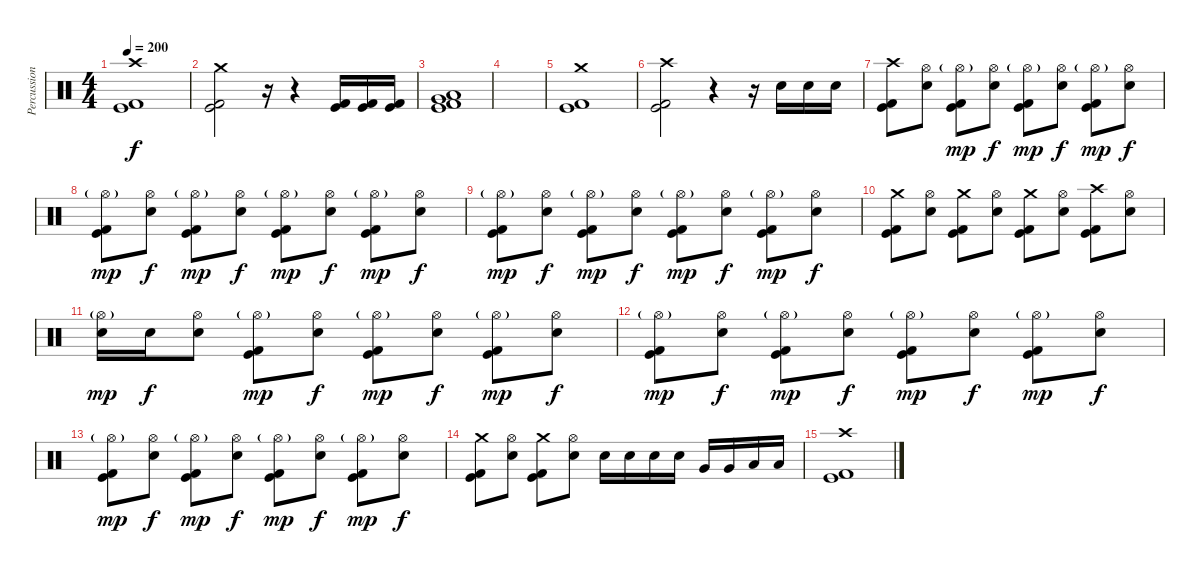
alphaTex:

\track ("Percussions" "Percussion") {instrument percussion}
\staff {score}
\articulation defaults
\ts (4 4)
\tempo 200
\clef neutral
\ks c
("Crash high (hit)" "Kick (hit)" "Kick (hit) 2").1{dy f} |
("Crash medium (hit)" "Kick (hit)" "Kick (hit) 2").2 r.16 r.4 ("Kick (hit)" "Kick (hit) 2").16 ("Kick (hit)" "Kick (hit) 2").16 ("Kick (hit)" "Kick (hit) 2").16 |
("Very Low Tom (hit)" "Low Floor Tom (hit)" "Kick (hit)" "Kick (hit) 2").1 |
|
("Crash medium (hit)" "Kick (hit)" "Kick (hit) 2").1 |
("Crash high (hit)" "Kick (hit)" "Kick (hit) 2").2 r.4 r.16 "Electric Snare (hit)".16 "Electric Snare (hit)".16 "Electric Snare (hit)".16 |
("Crash high (hit)" "Kick (hit)" "Kick (hit) 2").8 ("Hi-Hat (open)" "Electric Snare (hit)").8 ("Hi-Hat (open)"{g} "Kick (hit)" "Kick (hit) 2").8{dy mp} ("Hi-Hat (open)" "Electric Snare (hit)").8{dy f} ("Hi-Hat (open)"{g} "Kick (hit)" "Kick (hit) 2").8{dy mp} ("Hi-Hat (open)" "Electric Snare (hit)").8{dy f} ("Hi-Hat (open)"{g} "Kick (hit)" "Kick (hit) 2").8{dy mp} ("Hi-Hat (open)" "Electric Snare (hit)").8{dy f} |
("Hi-Hat (open)"{g} "Kick (hit)" "Kick (hit) 2").8{dy mp} ("Hi-Hat (open)" "Electric Snare (hit)").8{dy f} ("Hi-Hat (open)"{g} "Kick (hit)" "Kick (hit) 2").8{dy mp} ("Hi-Hat (open)" "Electric Snare (hit)").8{dy f} ("Hi-Hat (open)"{g} "Kick (hit)" "Kick (hit) 2").8{dy mp} ("Hi-Hat (open)" "Electric Snare (hit)").8{dy f} ("Hi-Hat (open)"{g} "Kick (hit)" "Kick (hit) 2").8{dy mp} ("Hi-Hat (open)" "Electric Snare (hit)").8{dy f} |
("Hi-Hat (open)"{g} "Kick (hit)" "Kick (hit) 2").8{dy mp} ("Hi-Hat (open)" "Electric Snare (hit)").8{dy f} ("Hi-Hat (open)"{g} "Kick (hit)" "Kick (hit) 2").8{dy mp} ("Hi-Hat (open)" "Electric Snare (hit)").8{dy f} ("Hi-Hat (open)"{g} "Kick (hit)" "Kick (hit) 2").8{dy mp} ("Hi-Hat (open)" "Electric Snare (hit)").8{dy f} ("Hi-Hat (open)"{g} "Kick (hit)" "Kick (hit) 2").8{dy mp} ("Hi-Hat (open)" "Electric Snare (hit)").8{dy f} |
("Crash medium (hit)" "Kick (hit)" "Kick (hit) 2").8 ("Hi-Hat (open)" "Electric Snare (hit)").8 ("Crash medium (hit)" "Kick (hit)" "Kick (hit) 2").8 ("Hi-Hat (open)" "Electric Snare (hit)").8 ("Crash medium (hit)" "Kick (hit)" "Kick (hit) 2").8 ("Hi-Hat (open)" "Electric Snare (hit)").8 ("Crash high (hit)" "Kick (hit)" "Kick (hit) 2").8 ("Hi-Hat (open)" "Electric Snare (hit)").8 |
("Hi-Hat (open)"{g} "Electric Snare (hit)").16{dy mp} "Electric Snare (hit)".16{dy f} ("Hi-Hat (open)" "Electric Snare (hit)").8 ("Hi-Hat (open)"{g} "Kick (hit)" "Kick (hit) 2").8{dy mp} ("Hi-Hat (open)" "Electric Snare (hit)").8{dy f} ("Hi-Hat (open)"{g} "Kick (hit)" "Kick (hit) 2").8{dy mp} ("Hi-Hat (open)" "Electric Snare (hit)").8{dy f} ("Hi-Hat (open)"{g} "Kick (hit)" "Kick (hit) 2").8{dy mp} ("Hi-Hat (open)" "Electric Snare (hit)").8{dy f} |
("Hi-Hat (open)"{g} "Kick (hit)" "Kick (hit) 2").8{dy mp} ("Hi-Hat (open)" "Electric Snare (hit)").8{dy f} ("Hi-Hat (open)"{g} "Kick (hit)" "Kick (hit) 2").8{dy mp} ("Hi-Hat (open)" "Electric Snare (hit)").8{dy f} ("Hi-Hat (open)"{g} "Kick (hit)" "Kick (hit) 2").8{dy mp} ("Hi-Hat (open)" "Electric Snare (hit)").8{dy f} ("Hi-Hat (open)"{g} "Kick (hit)" "Kick (hit) 2").8{dy mp} ("Hi-Hat (open)" "Electric Snare (hit)").8{dy f} |
("Hi-Hat (open)"{g} "Kick (hit)" "Kick (hit) 2").8{dy mp} ("Hi-Hat (open)" "Electric Snare (hit)").8{dy f} ("Hi-Hat (open)"{g} "Kick (hit)" "Kick (hit) 2").8{dy mp} ("Hi-Hat (open)" "Electric Snare (hit)").8{dy f} ("Hi-Hat (open)"{g} "Kick (hit)" "Kick (hit) 2").8{dy mp} ("Hi-Hat (open)" "Electric Snare (hit)").8{dy f} ("Hi-Hat (open)"{g} "Kick (hit)" "Kick (hit) 2").8{dy mp} ("Hi-Hat (open)" "Electric Snare (hit)").8{dy f} |
("Crash medium (hit)" "Kick (hit)" "Kick (hit) 2").8 ("Hi-Hat (open)" "Electric Snare (hit)").8 ("Crash medium (hit)" "Kick (hit)" "Kick (hit) 2").8 ("Hi-Hat (open)" "Electric Snare (hit)").8 "Electric Snare (hit)".16 "Electric Snare (hit)".16 "Electric Snare (hit)".16 "Electric Snare (hit)".16 "Very Low Tom (hit)".16 "Very Low Tom (hit)".16 "Low Floor Tom (hit)".16 "Low Floor Tom (hit)".16 |
("Crash high (hit)" "Kick (hit)" "Kick (hit) 2").1
